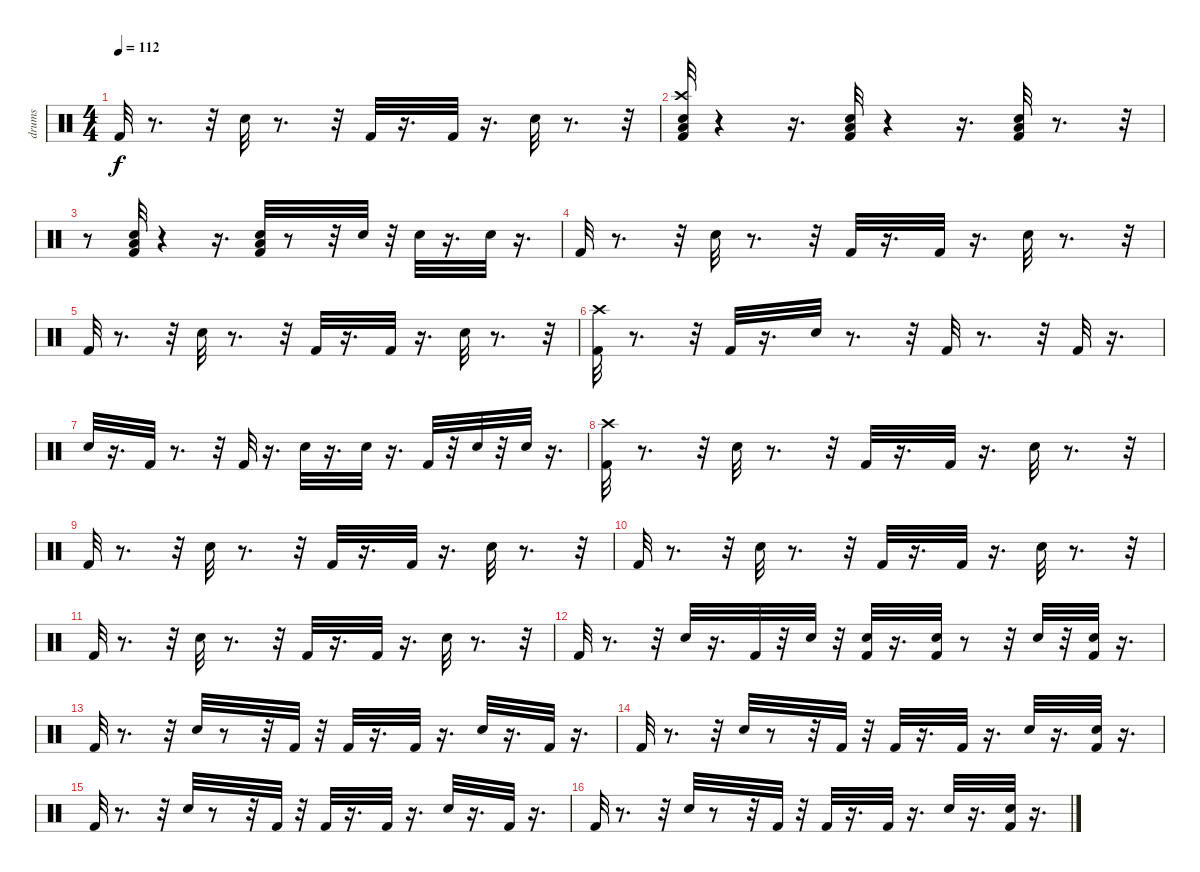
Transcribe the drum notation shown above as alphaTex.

\track ("drums" "drums") {instrument percussion}
\staff {score}
\articulation defaults
\ts (4 4)
\tempo 112
\clef neutral
\ks c "Kick (hit) 2".32{dy f}
r.8{d} r.32 "Snare (hit) 2".32 r.8{d} r.32 "Kick (hit) 2".32 r.16{d} "Kick (hit) 2".32 r.16{d} "Snare (hit) 2".32 r.8{d} r.32 |
("Crash high (hit)" "Kick (hit) 2" "Low Floor Tom (hit)" "Snare (hit) 2").32 r.4 r.16{d} ("Kick (hit) 2" "Low Floor Tom (hit)" "Snare (hit) 2").32 r.4 r.16{d} ("Kick (hit) 2" "Low Floor Tom (hit)" "Snare (hit) 2").32 r.8{d} r.32 |
r.8 ("Kick (hit) 2" "Low Floor Tom (hit)" "Snare (hit) 2").32 r.4 r.16{d} ("Kick (hit) 2" "Low Floor Tom (hit)" "Snare (hit) 2").32 r.8 r.32 "Snare (hit) 2".32 r.32 "Snare (hit) 2".32 r.16{d} "Snare (hit) 2".32 r.16{d} |
"Kick (hit) 2".32 r.8{d} r.32 "Snare (hit) 2".32 r.8{d} r.32 "Kick (hit) 2".32 r.16{d} "Kick (hit) 2".32 r.16{d} "Snare (hit) 2".32 r.8{d} r.32 |
"Kick (hit) 2".32 r.8{d} r.32 "Snare (hit) 2".32 r.8{d} r.32 "Kick (hit) 2".32 r.16{d} "Kick (hit) 2".32 r.16{d} "Snare (hit) 2".32 r.8{d} r.32 |
("Crash high (hit)" "Kick (hit) 2").32 r.8{d} r.32 "Kick (hit) 2".32 r.16{d} "Snare (hit) 2".32 r.8{d} r.32 "Kick (hit) 2".32 r.8{d} r.32 "Kick (hit) 2".32 r.16{d} |
"Snare (hit) 2".32 r.16{d} "Kick (hit) 2".32 r.8{d} r.32 "Kick (hit) 2".32 r.16{d} "Snare (hit) 2".32 r.16{d} "Snare (hit) 2".32 r.16{d} "Kick (hit) 2".32 r.32 "Snare (hit) 2".32 r.32 "Snare (hit) 2".32 r.16{d} |
("Crash high (hit)" "Kick (hit) 2").32 r.8{d} r.32 "Snare (hit) 2".32 r.8{d} r.32 "Kick (hit) 2".32 r.16{d} "Kick (hit) 2".32 r.16{d} "Snare (hit) 2".32 r.8{d} r.32 |
"Kick (hit) 2".32 r.8{d} r.32 "Snare (hit) 2".32 r.8{d} r.32 "Kick (hit) 2".32 r.16{d} "Kick (hit) 2".32 r.16{d} "Snare (hit) 2".32 r.8{d} r.32 |
"Kick (hit) 2".32 r.8{d} r.32 "Snare (hit) 2".32 r.8{d} r.32 "Kick (hit) 2".32 r.16{d} "Kick (hit) 2".32 r.16{d} "Snare (hit) 2".32 r.8{d} r.32 |
"Kick (hit) 2".32 r.8{d} r.32 "Snare (hit) 2".32 r.8{d} r.32 "Kick (hit) 2".32 r.16{d} "Kick (hit) 2".32 r.16{d} "Snare (hit) 2".32 r.8{d} r.32 |
"Kick (hit) 2".32 r.8{d} r.32 "Snare (hit) 2".32 r.16{d} "Kick (hit) 2".32 r.32 "Snare (hit) 2".32 r.32 ("Snare (hit) 2" "Kick (hit) 2").32 r.16{d} ("Snare (hit) 2" "Kick (hit) 2").32 r.8 r.32 "Snare (hit) 2".32 r.32 ("Kick (hit) 2" "Snare (hit) 2").32 r.16{d} |
"Kick (hit) 2".32 r.8{d} r.32 "Snare (hit) 2".32 r.8 r.32 "Kick (hit) 2".32 r.32 "Kick (hit) 2".32 r.16{d} "Kick (hit) 2".32 r.16{d} "Snare (hit) 2".32 r.16{d} "Kick (hit) 2".32 r.16{d} |
"Kick (hit) 2".32 r.8{d} r.32 "Snare (hit) 2".32 r.8 r.32 "Kick (hit) 2".32 r.32 "Kick (hit) 2".32 r.16{d} "Kick (hit) 2".32 r.16{d} "Snare (hit) 2".32 r.16{d} ("Snare (hit) 2" "Kick (hit) 2").32 r.16{d} |
"Kick (hit) 2".32 r.8{d} r.32 "Snare (hit) 2".32 r.8 r.32 "Kick (hit) 2".32 r.32 "Kick (hit) 2".32 r.16{d} "Kick (hit) 2".32 r.16{d} "Snare (hit) 2".32 r.16{d} "Kick (hit) 2".32 r.16{d} |
"Kick (hit) 2".32 r.8{d} r.32 "Snare (hit) 2".32 r.8 r.32 "Kick (hit) 2".32 r.32 "Kick (hit) 2".32 r.16{d} "Kick (hit) 2".32 r.16{d} "Snare (hit) 2".32 r.16{d} ("Snare (hit) 2" "Kick (hit) 2").32 r.16{d}
